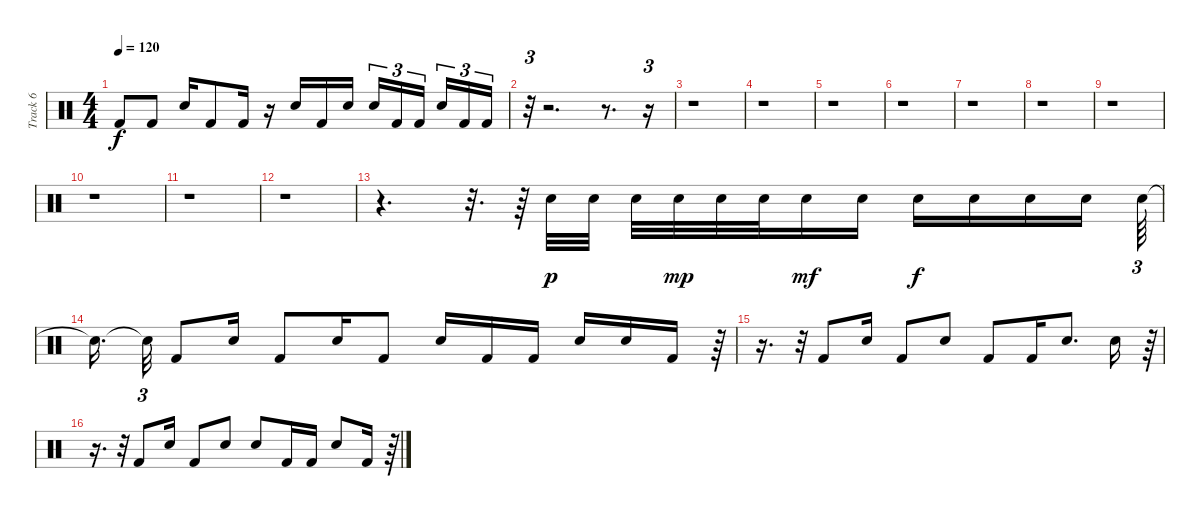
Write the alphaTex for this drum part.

\track ("Track 6" "Track 6") {instrument percussion}
\staff {score}
\articulation defaults
\ts (4 4)
\tempo 120
\clef neutral
\ks c "Kick (hit) 2".8{dy f} "Kick (hit) 2".8 "Electric Snare (hit)".16 "Kick (hit) 2".8 "Kick (hit) 2".16
r.16 "Electric Snare (hit)".16 "Kick (hit) 2".16 "Electric Snare (hit)".16 "Electric Snare (hit)".16{tu (3 2)} "Kick (hit) 2".16{tu (3 2)} "Kick (hit) 2".16{tu (3 2) beam splitsecondary} "Electric Snare (hit)".16{tu (3 2)} "Kick (hit) 2".16{tu (3 2)} "Kick (hit) 2".16{tu (3 2)} |
r.32{tu (3 2)} r.2{d} r.8{d} r.16{tu (3 2)} |
r.1 |
r.1 |
r.1 |
r.1 |
r.1 |
r.1 |
r.1 |
r.1 |
r.1 |
r.1 |
r.4{d} r.32{d} r.64 "Electric Snare (hit)".32{dy p} "Electric Snare (hit)".32 "Electric Snare (hit)".32 "Electric Snare (hit)".32{dy mp} "Electric Snare (hit)".32 "Electric Snare (hit)".32 "Electric Snare (hit)".16{dy mf} "Electric Snare (hit)".16 "Electric Snare (hit)".16{dy f} "Electric Snare (hit)".16 "Electric Snare (hit)".16 "Electric Snare (hit)".16 "Electric Snare (hit)".64{tu (3 2)} |
"Snare (hit)"{t}.16{d beam splitsecondary} "Snare (hit)"{t}.32{tu (3 2)} "Kick (hit) 2".8 "Electric Snare (hit)".16 "Kick (hit) 2".8 "Electric Snare (hit)".16 "Kick (hit) 2".8 "Electric Snare (hit)".16 "Kick (hit) 2".16 "Kick (hit) 2".16 "Electric Snare (hit)".16 "Electric Snare (hit)".16 "Kick (hit) 2".16 r.64{tu (3 2)} |
r.16{d} r.32{tu (3 2)} "Kick (hit) 2".8 "Electric Snare (hit)".16 "Kick (hit) 2".8 "Electric Snare (hit)".8 "Kick (hit) 2".8 "Kick (hit) 2".16 "Electric Snare (hit)".8{d} "Electric Snare (hit)".16 r.64{tu (3 2)} |
r.16{d} r.32{tu (3 2)} "Kick (hit) 2".8 "Electric Snare (hit)".16 "Kick (hit) 2".8 "Electric Snare (hit)".8 "Electric Snare (hit)".8 "Kick (hit) 2".16 "Kick (hit) 2".16 "Electric Snare (hit)".8 "Kick (hit) 2".16 r.64{tu (3 2)}
